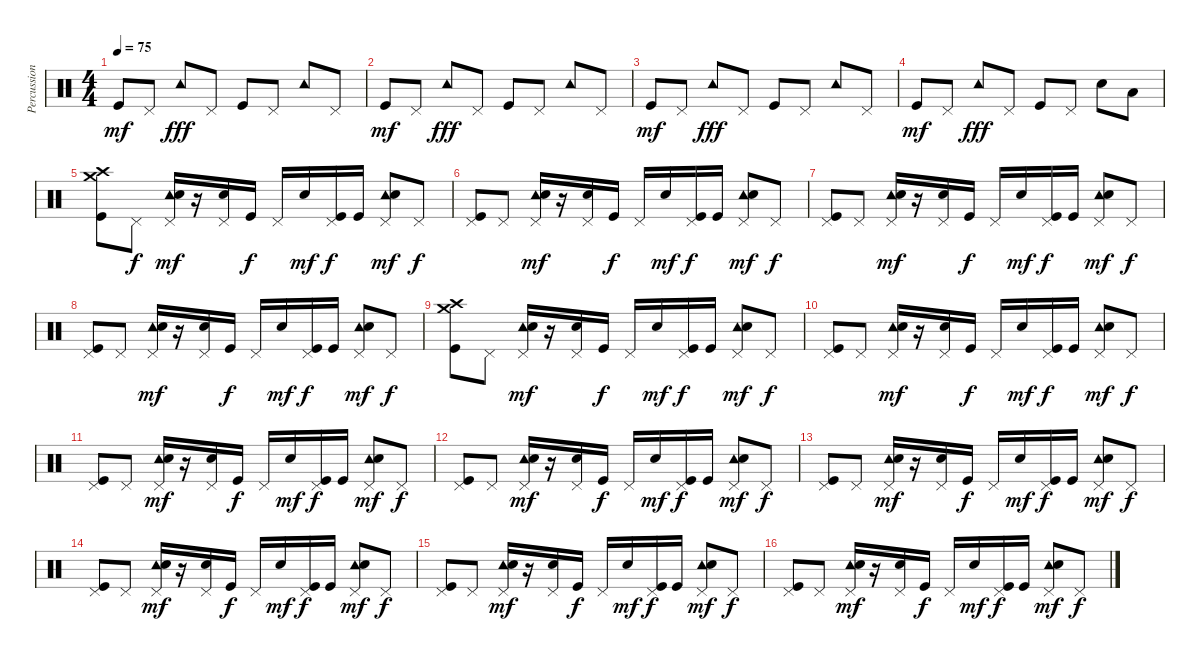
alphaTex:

\track ("Percussions" "Percussion") {instrument percussion}
\staff {score}
\articulation defaults
\ts (4 4)
\tempo 75
\clef neutral
\ks c "Kick (hit)".8{dy mf} "Pedal Hi-Hat (hit)".8 "Tambourine (hit)".8{dy fff} "Pedal Hi-Hat (hit)".8 "Kick (hit)".8 "Pedal Hi-Hat (hit)".8 "Tambourine (hit)".8 "Pedal Hi-Hat (hit)".8
|
"Kick (hit)".8{dy mf} "Pedal Hi-Hat (hit)".8 "Tambourine (hit)".8{dy fff} "Pedal Hi-Hat (hit)".8 "Kick (hit)".8 "Pedal Hi-Hat (hit)".8 "Tambourine (hit)".8 "Pedal Hi-Hat (hit)".8 |
"Kick (hit)".8{dy mf} "Pedal Hi-Hat (hit)".8 "Tambourine (hit)".8{dy fff} "Pedal Hi-Hat (hit)".8 "Kick (hit)".8 "Pedal Hi-Hat (hit)".8 "Tambourine (hit)".8 "Pedal Hi-Hat (hit)".8 |
"Kick (hit)".8{dy mf} "Pedal Hi-Hat (hit)".8 "Tambourine (hit)".8{dy fff} "Pedal Hi-Hat (hit)".8 "Kick (hit)".8 "Pedal Hi-Hat (hit)".8 "Electric Snare (hit)".8 "Low Tom (hit)".8 |
("Crash medium (hit)" "Crash high (hit)" "Kick (hit)").8 "Pedal Hi-Hat (hit)".8{dy f} ("Pedal Hi-Hat (hit)" "Tambourine (hit)" "Electric Snare (hit)").16{dy mf} r.16 ("Pedal Hi-Hat (hit)" "Electric Snare (hit)").16 "Kick (hit)".16{dy f} "Pedal Hi-Hat (hit)".16 "Electric Snare (hit)".16{dy mf} ("Pedal Hi-Hat (hit)" "Kick (hit)").16{dy f} "Kick (hit)".16 ("Pedal Hi-Hat (hit)" "Tambourine (hit)" "Electric Snare (hit)").8{dy mf} "Pedal Hi-Hat (hit)".8{dy f} |
("Pedal Hi-Hat (hit)" "Kick (hit)").8 "Pedal Hi-Hat (hit)".8 ("Pedal Hi-Hat (hit)" "Tambourine (hit)" "Electric Snare (hit)").16{dy mf} r.16 ("Pedal Hi-Hat (hit)" "Electric Snare (hit)").16 "Kick (hit)".16{dy f} "Pedal Hi-Hat (hit)".16 "Electric Snare (hit)".16{dy mf} ("Pedal Hi-Hat (hit)" "Kick (hit)").16{dy f} "Kick (hit)".16 ("Pedal Hi-Hat (hit)" "Tambourine (hit)" "Electric Snare (hit)").8{dy mf} "Pedal Hi-Hat (hit)".8{dy f} |
("Pedal Hi-Hat (hit)" "Kick (hit)").8 "Pedal Hi-Hat (hit)".8 ("Pedal Hi-Hat (hit)" "Tambourine (hit)" "Electric Snare (hit)").16{dy mf} r.16 ("Pedal Hi-Hat (hit)" "Electric Snare (hit)").16 "Kick (hit)".16{dy f} "Pedal Hi-Hat (hit)".16 "Electric Snare (hit)".16{dy mf} ("Pedal Hi-Hat (hit)" "Kick (hit)").16{dy f} "Kick (hit)".16 ("Pedal Hi-Hat (hit)" "Tambourine (hit)" "Electric Snare (hit)").8{dy mf} "Pedal Hi-Hat (hit)".8{dy f} |
("Pedal Hi-Hat (hit)" "Kick (hit)").8 "Pedal Hi-Hat (hit)".8 ("Pedal Hi-Hat (hit)" "Tambourine (hit)" "Electric Snare (hit)").16{dy mf} r.16 ("Pedal Hi-Hat (hit)" "Electric Snare (hit)").16 "Kick (hit)".16{dy f} "Pedal Hi-Hat (hit)".16 "Electric Snare (hit)".16{dy mf} ("Pedal Hi-Hat (hit)" "Kick (hit)").16{dy f} "Kick (hit)".16 ("Pedal Hi-Hat (hit)" "Tambourine (hit)" "Electric Snare (hit)").8{dy mf} "Pedal Hi-Hat (hit)".8{dy f} |
("Crash medium (hit)" "Crash high (hit)" "Kick (hit)").8 "Pedal Hi-Hat (hit)".8 ("Pedal Hi-Hat (hit)" "Tambourine (hit)" "Electric Snare (hit)").16{dy mf} r.16 ("Pedal Hi-Hat (hit)" "Electric Snare (hit)").16 "Kick (hit)".16{dy f} "Pedal Hi-Hat (hit)".16 "Electric Snare (hit)".16{dy mf} ("Pedal Hi-Hat (hit)" "Kick (hit)").16{dy f} "Kick (hit)".16 ("Pedal Hi-Hat (hit)" "Tambourine (hit)" "Electric Snare (hit)").8{dy mf} "Pedal Hi-Hat (hit)".8{dy f} |
("Pedal Hi-Hat (hit)" "Kick (hit)").8 "Pedal Hi-Hat (hit)".8 ("Pedal Hi-Hat (hit)" "Tambourine (hit)" "Electric Snare (hit)").16{dy mf} r.16 ("Pedal Hi-Hat (hit)" "Electric Snare (hit)").16 "Kick (hit)".16{dy f} "Pedal Hi-Hat (hit)".16 "Electric Snare (hit)".16{dy mf} ("Pedal Hi-Hat (hit)" "Kick (hit)").16{dy f} "Kick (hit)".16 ("Pedal Hi-Hat (hit)" "Tambourine (hit)" "Electric Snare (hit)").8{dy mf} "Pedal Hi-Hat (hit)".8{dy f} |
("Pedal Hi-Hat (hit)" "Kick (hit)").8 "Pedal Hi-Hat (hit)".8 ("Pedal Hi-Hat (hit)" "Tambourine (hit)" "Electric Snare (hit)").16{dy mf} r.16 ("Pedal Hi-Hat (hit)" "Electric Snare (hit)").16 "Kick (hit)".16{dy f} "Pedal Hi-Hat (hit)".16 "Electric Snare (hit)".16{dy mf} ("Pedal Hi-Hat (hit)" "Kick (hit)").16{dy f} "Kick (hit)".16 ("Pedal Hi-Hat (hit)" "Tambourine (hit)" "Electric Snare (hit)").8{dy mf} "Pedal Hi-Hat (hit)".8{dy f} |
("Pedal Hi-Hat (hit)" "Kick (hit)").8 "Pedal Hi-Hat (hit)".8 ("Pedal Hi-Hat (hit)" "Tambourine (hit)" "Electric Snare (hit)").16{dy mf} r.16 ("Pedal Hi-Hat (hit)" "Electric Snare (hit)").16 "Kick (hit)".16{dy f} "Pedal Hi-Hat (hit)".16 "Electric Snare (hit)".16{dy mf} ("Pedal Hi-Hat (hit)" "Kick (hit)").16{dy f} "Kick (hit)".16 ("Pedal Hi-Hat (hit)" "Tambourine (hit)" "Electric Snare (hit)").8{dy mf} "Pedal Hi-Hat (hit)".8{dy f} |
("Pedal Hi-Hat (hit)" "Kick (hit)").8 "Pedal Hi-Hat (hit)".8 ("Pedal Hi-Hat (hit)" "Tambourine (hit)" "Electric Snare (hit)").16{dy mf} r.16 ("Pedal Hi-Hat (hit)" "Electric Snare (hit)").16 "Kick (hit)".16{dy f} "Pedal Hi-Hat (hit)".16 "Electric Snare (hit)".16{dy mf} ("Pedal Hi-Hat (hit)" "Kick (hit)").16{dy f} "Kick (hit)".16 ("Pedal Hi-Hat (hit)" "Tambourine (hit)" "Electric Snare (hit)").8{dy mf} "Pedal Hi-Hat (hit)".8{dy f} |
("Pedal Hi-Hat (hit)" "Kick (hit)").8 "Pedal Hi-Hat (hit)".8 ("Pedal Hi-Hat (hit)" "Tambourine (hit)" "Electric Snare (hit)").16{dy mf} r.16 ("Pedal Hi-Hat (hit)" "Electric Snare (hit)").16 "Kick (hit)".16{dy f} "Pedal Hi-Hat (hit)".16 "Electric Snare (hit)".16{dy mf} ("Pedal Hi-Hat (hit)" "Kick (hit)").16{dy f} "Kick (hit)".16 ("Pedal Hi-Hat (hit)" "Tambourine (hit)" "Electric Snare (hit)").8{dy mf} "Pedal Hi-Hat (hit)".8{dy f} |
("Pedal Hi-Hat (hit)" "Kick (hit)").8 "Pedal Hi-Hat (hit)".8 ("Pedal Hi-Hat (hit)" "Tambourine (hit)" "Electric Snare (hit)").16{dy mf} r.16 ("Pedal Hi-Hat (hit)" "Electric Snare (hit)").16 "Kick (hit)".16{dy f} "Pedal Hi-Hat (hit)".16 "Electric Snare (hit)".16{dy mf} ("Pedal Hi-Hat (hit)" "Kick (hit)").16{dy f} "Kick (hit)".16 ("Pedal Hi-Hat (hit)" "Tambourine (hit)" "Electric Snare (hit)").8{dy mf} "Pedal Hi-Hat (hit)".8{dy f} |
("Pedal Hi-Hat (hit)" "Kick (hit)").8 "Pedal Hi-Hat (hit)".8 ("Pedal Hi-Hat (hit)" "Tambourine (hit)" "Electric Snare (hit)").16{dy mf} r.16 ("Pedal Hi-Hat (hit)" "Electric Snare (hit)").16 "Kick (hit)".16{dy f} "Pedal Hi-Hat (hit)".16 "Electric Snare (hit)".16{dy mf} ("Pedal Hi-Hat (hit)" "Kick (hit)").16{dy f} "Kick (hit)".16 ("Pedal Hi-Hat (hit)" "Tambourine (hit)" "Electric Snare (hit)").8{dy mf} "Pedal Hi-Hat (hit)".8{dy f}
